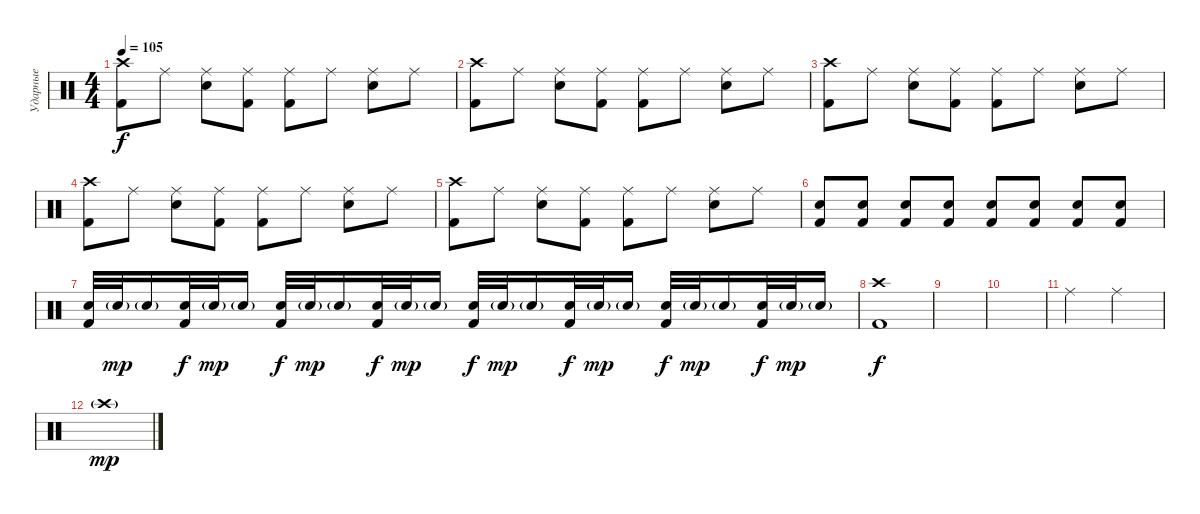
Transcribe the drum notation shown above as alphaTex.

\track ("Ударные" "Ударные") {instrument percussion}
\staff {score}
\articulation defaults
\ts (4 4)
\tempo 105
\clef neutral
\ks c
("Kick (hit) 2" "Crash high (hit)").8{dy f} "Ride (middle)".8 ("Electric Snare (hit)" "Ride (middle)").8 ("Kick (hit) 2" "Ride (middle)").8 ("Kick (hit) 2" "Ride (middle)").8 "Ride (middle)".8 ("Electric Snare (hit)" "Ride (middle)").8 "Ride (middle)".8 |
("Kick (hit) 2" "Crash high (hit)").8 "Ride (middle)".8 ("Electric Snare (hit)" "Ride (middle)").8 ("Kick (hit) 2" "Ride (middle)").8 ("Kick (hit) 2" "Ride (middle)").8 "Ride (middle)".8 ("Electric Snare (hit)" "Ride (middle)").8 "Ride (middle)".8 |
("Kick (hit) 2" "Crash high (hit)").8 "Ride (middle)".8 ("Electric Snare (hit)" "Ride (middle)").8 ("Kick (hit) 2" "Ride (middle)").8 ("Kick (hit) 2" "Ride (middle)").8 "Ride (middle)".8 ("Electric Snare (hit)" "Ride (middle)").8 "Ride (middle)".8 |
("Kick (hit) 2" "Crash high (hit)").8 "Ride (middle)".8 ("Electric Snare (hit)" "Ride (middle)").8 ("Kick (hit) 2" "Ride (middle)").8 ("Kick (hit) 2" "Ride (middle)").8 "Ride (middle)".8 ("Electric Snare (hit)" "Ride (middle)").8 "Ride (middle)".8 |
("Kick (hit) 2" "Crash high (hit)").8 "Ride (middle)".8 ("Electric Snare (hit)" "Ride (middle)").8 ("Kick (hit) 2" "Ride (middle)").8 ("Kick (hit) 2" "Ride (middle)").8 "Ride (middle)".8 ("Electric Snare (hit)" "Ride (middle)").8 "Ride (middle)".8 |
("Kick (hit) 2" "Electric Snare (hit)").8 ("Kick (hit) 2" "Electric Snare (hit)").8 ("Kick (hit) 2" "Electric Snare (hit)").8 ("Kick (hit) 2" "Electric Snare (hit)").8 ("Kick (hit) 2" "Electric Snare (hit)").8 ("Kick (hit) 2" "Electric Snare (hit)").8 ("Kick (hit) 2" "Electric Snare (hit)").8 ("Kick (hit) 2" "Electric Snare (hit)").8 |
("Kick (hit) 2" "Electric Snare (hit)").32 "Electric Snare (hit)"{g}.32{dy mp} "Electric Snare (hit)"{g}.16 ("Kick (hit) 2" "Electric Snare (hit)").32{dy f} "Electric Snare (hit)"{g}.32{dy mp} "Electric Snare (hit)"{g}.16 ("Kick (hit) 2" "Electric Snare (hit)").32{dy f} "Electric Snare (hit)"{g}.32{dy mp} "Electric Snare (hit)"{g}.16 ("Kick (hit) 2" "Electric Snare (hit)").32{dy f} "Electric Snare (hit)"{g}.32{dy mp} "Electric Snare (hit)"{g}.16 ("Kick (hit) 2" "Electric Snare (hit)").32{dy f} "Electric Snare (hit)"{g}.32{dy mp} "Electric Snare (hit)"{g}.16 ("Kick (hit) 2" "Electric Snare (hit)").32{dy f} "Electric Snare (hit)"{g}.32{dy mp} "Electric Snare (hit)"{g}.16 ("Kick (hit) 2" "Electric Snare (hit)").32{dy f} "Electric Snare (hit)"{g}.32{dy mp} "Electric Snare (hit)"{g}.16 ("Kick (hit) 2" "Electric Snare (hit)").32{dy f} "Electric Snare (hit)"{g}.32{dy mp} "Electric Snare (hit)"{g}.16 |
("Kick (hit) 2" "Crash high (hit)").1{dy f} |
|
|
"Ride (middle)".2 "Ride (middle)".2 |
"Crash high (hit)"{g}.1{dy mp}
